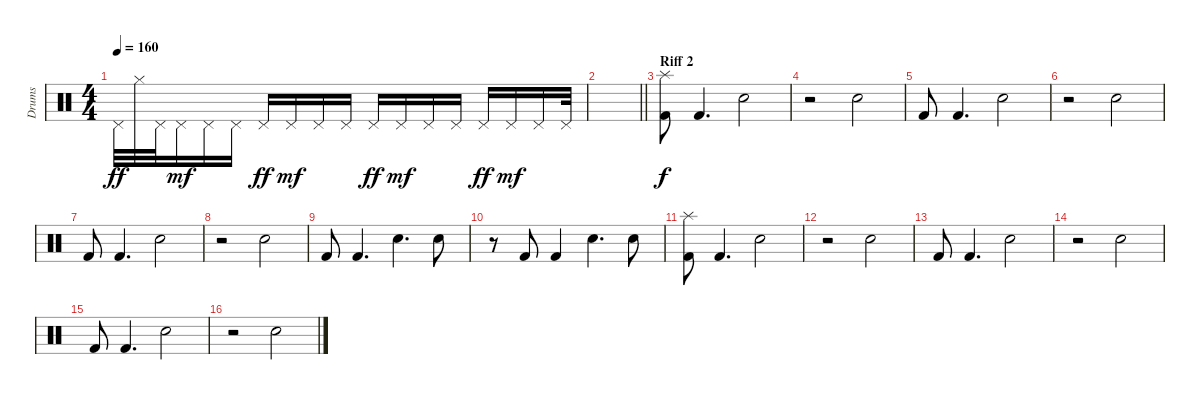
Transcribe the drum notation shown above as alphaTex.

\track ("Drums" "Drums") {instrument percussion}
\staff {score}
\articulation defaults
\ts (4 4)
\tempo 160
\clef neutral
\ks c "Pedal Hi-Hat (hit)".32{dy ff} "Hi-Hat (closed)".32 "Pedal Hi-Hat (hit)".32 "Pedal Hi-Hat (hit)".16{dy mf} "Pedal Hi-Hat (hit)".16 "Pedal Hi-Hat (hit)".16 "Pedal Hi-Hat (hit)".16{dy ff} "Pedal Hi-Hat (hit)".16{dy mf} "Pedal Hi-Hat (hit)".16 "Pedal Hi-Hat (hit)".16 "Pedal Hi-Hat (hit)".16{dy ff} "Pedal Hi-Hat (hit)".16{dy mf} "Pedal Hi-Hat (hit)".16 "Pedal Hi-Hat (hit)".16 "Pedal Hi-Hat (hit)".16{dy ff} "Pedal Hi-Hat (hit)".16{dy mf} "Pedal Hi-Hat (hit)".16 "Pedal Hi-Hat (hit)".32
|
\barLineRight lightlight
|
\section ("" "Riff 2")
("Kick (hit) 2" "Splash (hit)").8{dy f} "Kick (hit) 2".4{d} "Snare (hit) 2".2 |
r.2 "Snare (hit) 2".2 |
"Kick (hit) 2".8 "Kick (hit) 2".4{d} "Snare (hit) 2".2 |
r.2 "Snare (hit) 2".2 |
"Kick (hit) 2".8 "Kick (hit) 2".4{d} "Snare (hit) 2".2 |
r.2 "Snare (hit) 2".2 |
"Kick (hit) 2".8 "Kick (hit) 2".4{d} "Snare (hit) 2".4{d} "Snare (hit) 2".8 |
r.8 "Kick (hit) 2".8 "Kick (hit) 2".4 "Snare (hit) 2".4{d} "Snare (hit) 2".8 |
("Kick (hit) 2" "Splash (hit)").8 "Kick (hit) 2".4{d} "Snare (hit) 2".2 |
r.2 "Snare (hit) 2".2 |
"Kick (hit) 2".8 "Kick (hit) 2".4{d} "Snare (hit) 2".2 |
r.2 "Snare (hit) 2".2 |
"Kick (hit) 2".8 "Kick (hit) 2".4{d} "Snare (hit) 2".2 |
r.2 "Snare (hit) 2".2
